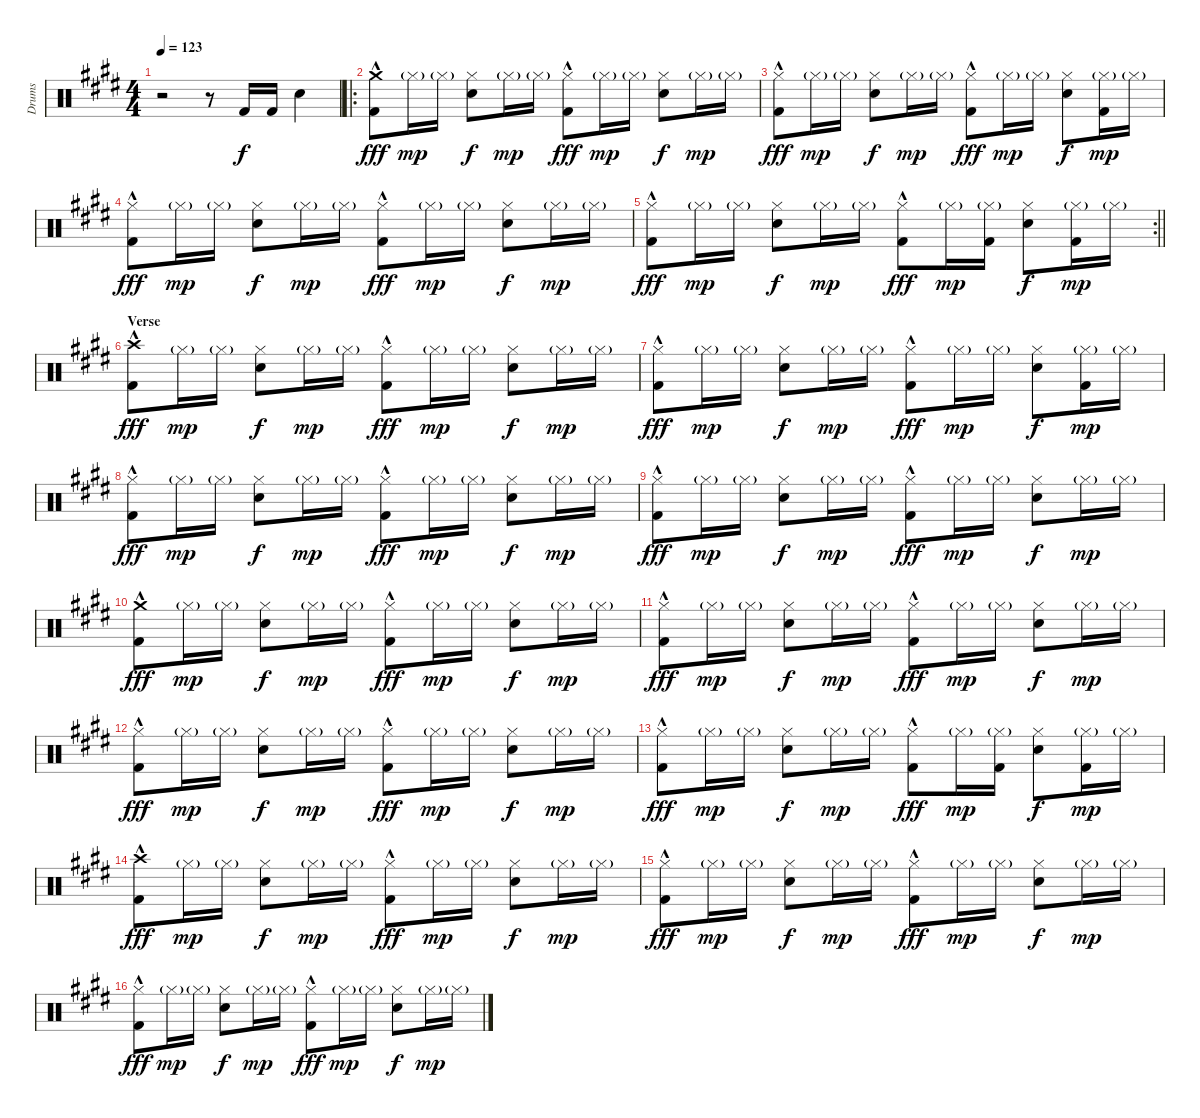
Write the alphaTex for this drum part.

\track ("Drums" "Drums") {instrument percussion}
\staff {score}
\articulation defaults
\ts (4 4)
\tempo 123
\clef neutral
\ks c#minor
r.2{dy f} r.8 "Kick (hit) 2".16 "Kick (hit) 2".16 "Snare (hit) 2".4 |
\ro
("Crash medium (hit)" "Kick (hit) 2"{hac}).8{dy fff} "Hi-Hat (closed)"{g}.16{dy mp} "Hi-Hat (closed)"{g}.16 ("Hi-Hat (closed)" "Snare (hit) 2").8{dy f} "Hi-Hat (closed)"{g}.16{dy mp} "Hi-Hat (closed)"{g}.16 ("Hi-Hat (closed)"{hac} "Kick (hit) 2"{hac}).8{dy fff} "Hi-Hat (closed)"{g}.16{dy mp} "Hi-Hat (closed)"{g}.16 ("Hi-Hat (closed)" "Snare (hit) 2").8{dy f} "Hi-Hat (closed)"{g}.16{dy mp} "Hi-Hat (closed)"{g}.16 |
("Hi-Hat (closed)"{hac} "Kick (hit) 2").8{dy fff} "Hi-Hat (closed)"{g}.16{dy mp} "Hi-Hat (closed)"{g}.16 ("Hi-Hat (closed)" "Snare (hit) 2").8{dy f} "Hi-Hat (closed)"{g}.16{dy mp} "Hi-Hat (closed)"{g}.16 ("Hi-Hat (closed)"{hac} "Kick (hit) 2"{hac}).8{dy fff} "Hi-Hat (closed)"{g}.16{dy mp} "Hi-Hat (closed)"{g}.16 ("Hi-Hat (closed)" "Snare (hit) 2").8{dy f} ("Hi-Hat (closed)"{g} "Kick (hit) 2").16{dy mp} "Hi-Hat (closed)"{g}.16 |
("Hi-Hat (closed)"{hac} "Kick (hit) 2").8{dy fff} "Hi-Hat (closed)"{g}.16{dy mp} "Hi-Hat (closed)"{g}.16 ("Hi-Hat (closed)" "Snare (hit) 2").8{dy f} "Hi-Hat (closed)"{g}.16{dy mp} "Hi-Hat (closed)"{g}.16 ("Hi-Hat (closed)"{hac} "Kick (hit) 2"{hac}).8{dy fff} "Hi-Hat (closed)"{g}.16{dy mp} "Hi-Hat (closed)"{g}.16 ("Hi-Hat (closed)" "Snare (hit) 2").8{dy f} "Hi-Hat (closed)"{g}.16{dy mp} "Hi-Hat (closed)"{g}.16 |
\rc 2
\barLineRight lightlight
("Hi-Hat (closed)"{hac} "Kick (hit) 2").8{dy fff} "Hi-Hat (closed)"{g}.16{dy mp} "Hi-Hat (closed)"{g}.16 ("Hi-Hat (closed)" "Snare (hit) 2").8{dy f} "Hi-Hat (closed)"{g}.16{dy mp} "Hi-Hat (closed)"{g}.16 ("Hi-Hat (closed)"{hac} "Kick (hit) 2"{hac}).8{dy fff} "Hi-Hat (closed)"{g}.16{dy mp} ("Hi-Hat (closed)"{g} "Kick (hit) 2").16 ("Hi-Hat (closed)" "Snare (hit) 2").8{dy f} ("Hi-Hat (closed)"{g} "Kick (hit) 2").16{dy mp} "Hi-Hat (closed)"{g}.16 |
\section ("" "Verse")
("Crash high (hit)" "Kick (hit) 2"{hac}).8{dy fff} "Hi-Hat (closed)"{g}.16{dy mp} "Hi-Hat (closed)"{g}.16 ("Hi-Hat (closed)" "Snare (hit) 2").8{dy f} "Hi-Hat (closed)"{g}.16{dy mp} "Hi-Hat (closed)"{g}.16 ("Hi-Hat (closed)"{hac} "Kick (hit) 2"{hac}).8{dy fff} "Hi-Hat (closed)"{g}.16{dy mp} "Hi-Hat (closed)"{g}.16 ("Hi-Hat (closed)" "Snare (hit) 2").8{dy f} "Hi-Hat (closed)"{g}.16{dy mp} "Hi-Hat (closed)"{g}.16 |
("Hi-Hat (closed)"{hac} "Kick (hit) 2").8{dy fff} "Hi-Hat (closed)"{g}.16{dy mp} "Hi-Hat (closed)"{g}.16 ("Hi-Hat (closed)" "Snare (hit) 2").8{dy f} "Hi-Hat (closed)"{g}.16{dy mp} "Hi-Hat (closed)"{g}.16 ("Hi-Hat (closed)"{hac} "Kick (hit) 2"{hac}).8{dy fff} "Hi-Hat (closed)"{g}.16{dy mp} "Hi-Hat (closed)"{g}.16 ("Hi-Hat (closed)" "Snare (hit) 2").8{dy f} ("Hi-Hat (closed)"{g} "Kick (hit) 2").16{dy mp} "Hi-Hat (closed)"{g}.16 |
("Hi-Hat (closed)"{hac} "Kick (hit) 2").8{dy fff} "Hi-Hat (closed)"{g}.16{dy mp} "Hi-Hat (closed)"{g}.16 ("Hi-Hat (closed)" "Snare (hit) 2").8{dy f} "Hi-Hat (closed)"{g}.16{dy mp} "Hi-Hat (closed)"{g}.16 ("Hi-Hat (closed)"{hac} "Kick (hit) 2"{hac}).8{dy fff} "Hi-Hat (closed)"{g}.16{dy mp} "Hi-Hat (closed)"{g}.16 ("Hi-Hat (closed)" "Snare (hit) 2").8{dy f} "Hi-Hat (closed)"{g}.16{dy mp} "Hi-Hat (closed)"{g}.16 |
("Hi-Hat (closed)"{hac} "Kick (hit) 2").8{dy fff} "Hi-Hat (closed)"{g}.16{dy mp} "Hi-Hat (closed)"{g}.16 ("Hi-Hat (closed)" "Snare (hit) 2").8{dy f} "Hi-Hat (closed)"{g}.16{dy mp} "Hi-Hat (closed)"{g}.16 ("Hi-Hat (closed)"{hac} "Kick (hit) 2"{hac}).8{dy fff} "Hi-Hat (closed)"{g}.16{dy mp} "Hi-Hat (closed)"{g}.16 ("Hi-Hat (closed)" "Snare (hit) 2").8{dy f} "Hi-Hat (closed)"{g}.16{dy mp} "Hi-Hat (closed)"{g}.16 |
("Crash medium (hit)" "Kick (hit) 2"{hac}).8{dy fff} "Hi-Hat (closed)"{g}.16{dy mp} "Hi-Hat (closed)"{g}.16 ("Hi-Hat (closed)" "Snare (hit) 2").8{dy f} "Hi-Hat (closed)"{g}.16{dy mp} "Hi-Hat (closed)"{g}.16 ("Hi-Hat (closed)"{hac} "Kick (hit) 2"{hac}).8{dy fff} "Hi-Hat (closed)"{g}.16{dy mp} "Hi-Hat (closed)"{g}.16 ("Hi-Hat (closed)" "Snare (hit) 2").8{dy f} "Hi-Hat (closed)"{g}.16{dy mp} "Hi-Hat (closed)"{g}.16 |
("Hi-Hat (closed)"{hac} "Kick (hit) 2").8{dy fff} "Hi-Hat (closed)"{g}.16{dy mp} "Hi-Hat (closed)"{g}.16 ("Hi-Hat (closed)" "Snare (hit) 2").8{dy f} "Hi-Hat (closed)"{g}.16{dy mp} "Hi-Hat (closed)"{g}.16 ("Hi-Hat (closed)"{hac} "Kick (hit) 2"{hac}).8{dy fff} "Hi-Hat (closed)"{g}.16{dy mp} "Hi-Hat (closed)"{g}.16 ("Hi-Hat (closed)" "Snare (hit) 2").8{dy f} "Hi-Hat (closed)"{g}.16{dy mp} "Hi-Hat (closed)"{g}.16 |
("Hi-Hat (closed)"{hac} "Kick (hit) 2").8{dy fff} "Hi-Hat (closed)"{g}.16{dy mp} "Hi-Hat (closed)"{g}.16 ("Hi-Hat (closed)" "Snare (hit) 2").8{dy f} "Hi-Hat (closed)"{g}.16{dy mp} "Hi-Hat (closed)"{g}.16 ("Hi-Hat (closed)"{hac} "Kick (hit) 2"{hac}).8{dy fff} "Hi-Hat (closed)"{g}.16{dy mp} "Hi-Hat (closed)"{g}.16 ("Hi-Hat (closed)" "Snare (hit) 2").8{dy f} "Hi-Hat (closed)"{g}.16{dy mp} "Hi-Hat (closed)"{g}.16 |
("Hi-Hat (closed)"{hac} "Kick (hit) 2").8{dy fff} "Hi-Hat (closed)"{g}.16{dy mp} "Hi-Hat (closed)"{g}.16 ("Hi-Hat (closed)" "Snare (hit) 2").8{dy f} "Hi-Hat (closed)"{g}.16{dy mp} "Hi-Hat (closed)"{g}.16 ("Hi-Hat (closed)"{hac} "Kick (hit) 2"{hac}).8{dy fff} "Hi-Hat (closed)"{g}.16{dy mp} ("Hi-Hat (closed)"{g} "Kick (hit) 2").16 ("Hi-Hat (closed)" "Snare (hit) 2").8{dy f} ("Hi-Hat (closed)"{g} "Kick (hit) 2").16{dy mp} "Hi-Hat (closed)"{g}.16 |
("Crash high (hit)" "Kick (hit) 2"{hac}).8{dy fff} "Hi-Hat (closed)"{g}.16{dy mp} "Hi-Hat (closed)"{g}.16 ("Hi-Hat (closed)" "Snare (hit) 2").8{dy f} "Hi-Hat (closed)"{g}.16{dy mp} "Hi-Hat (closed)"{g}.16 ("Hi-Hat (closed)"{hac} "Kick (hit) 2"{hac}).8{dy fff} "Hi-Hat (closed)"{g}.16{dy mp} "Hi-Hat (closed)"{g}.16 ("Hi-Hat (closed)" "Snare (hit) 2").8{dy f} "Hi-Hat (closed)"{g}.16{dy mp} "Hi-Hat (closed)"{g}.16 |
("Hi-Hat (closed)"{hac} "Kick (hit) 2").8{dy fff} "Hi-Hat (closed)"{g}.16{dy mp} "Hi-Hat (closed)"{g}.16 ("Hi-Hat (closed)" "Snare (hit) 2").8{dy f} "Hi-Hat (closed)"{g}.16{dy mp} "Hi-Hat (closed)"{g}.16 ("Hi-Hat (closed)"{hac} "Kick (hit) 2"{hac}).8{dy fff} "Hi-Hat (closed)"{g}.16{dy mp} "Hi-Hat (closed)"{g}.16 ("Hi-Hat (closed)" "Snare (hit) 2").8{dy f} "Hi-Hat (closed)"{g}.16{dy mp} "Hi-Hat (closed)"{g}.16 |
("Hi-Hat (closed)"{hac} "Kick (hit) 2").8{dy fff} "Hi-Hat (closed)"{g}.16{dy mp} "Hi-Hat (closed)"{g}.16 ("Hi-Hat (closed)" "Snare (hit) 2").8{dy f} "Hi-Hat (closed)"{g}.16{dy mp} "Hi-Hat (closed)"{g}.16 ("Hi-Hat (closed)"{hac} "Kick (hit) 2"{hac}).8{dy fff} "Hi-Hat (closed)"{g}.16{dy mp} "Hi-Hat (closed)"{g}.16 ("Hi-Hat (closed)" "Snare (hit) 2").8{dy f} "Hi-Hat (closed)"{g}.16{dy mp} "Hi-Hat (closed)"{g}.16
